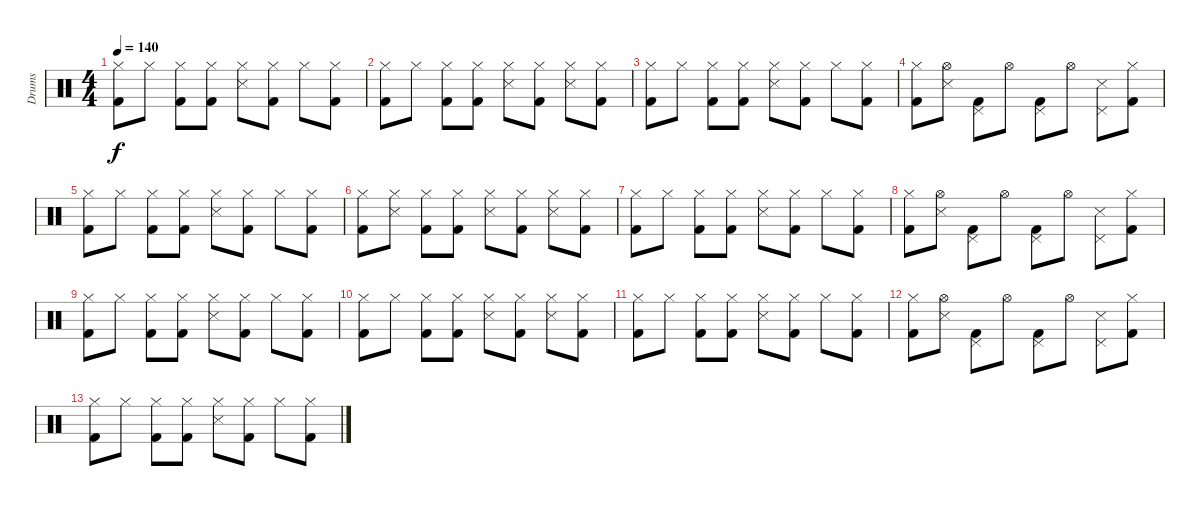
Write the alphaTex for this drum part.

\track ("Drums" "Drums") {instrument percussion}
\staff {score}
\articulation defaults
\ts (4 4)
\tempo 140
\clef neutral
\ks c
("Kick (hit) 2" "Hi-Hat (closed)").8{dy f} "Hi-Hat (closed)".8 ("Kick (hit) 2" "Hi-Hat (closed)").8 ("Kick (hit) 2" "Hi-Hat (closed)").8 ("Snare (side stick) 3" "Hi-Hat (closed)").8 ("Kick (hit) 2" "Hi-Hat (closed)").8 "Hi-Hat (closed)".8 ("Kick (hit) 2" "Hi-Hat (closed)").8 |
("Kick (hit) 2" "Hi-Hat (closed)").8 "Hi-Hat (closed)".8 ("Kick (hit) 2" "Hi-Hat (closed)").8 ("Kick (hit) 2" "Hi-Hat (closed)").8 ("Snare (side stick) 3" "Hi-Hat (closed)").8 ("Kick (hit) 2" "Hi-Hat (closed)").8 ("Snare (side stick) 3" "Hi-Hat (closed)").8 ("Kick (hit) 2" "Hi-Hat (closed)").8 |
("Kick (hit) 2" "Hi-Hat (closed)").8 "Hi-Hat (closed)".8 ("Kick (hit) 2" "Hi-Hat (closed)").8 ("Kick (hit) 2" "Hi-Hat (closed)").8 ("Snare (side stick) 3" "Hi-Hat (closed)").8 ("Kick (hit) 2" "Hi-Hat (closed)").8 "Hi-Hat (closed)".8 ("Kick (hit) 2" "Hi-Hat (closed)").8 |
("Kick (hit) 2" "Hi-Hat (closed)").8 ("Snare (side stick) 3" "Hi-Hat (open)").8 ("Kick (hit) 2" "Pedal Hi-Hat (hit)").8 "Hi-Hat (open)".8 ("Kick (hit) 2" "Pedal Hi-Hat (hit)").8 "Hi-Hat (open)".8 ("Snare (side stick) 3" "Pedal Hi-Hat (hit)").8 ("Kick (hit) 2" "Hi-Hat (closed)").8 |
("Kick (hit) 2" "Hi-Hat (closed)").8 "Hi-Hat (closed)".8 ("Kick (hit) 2" "Hi-Hat (closed)").8 ("Kick (hit) 2" "Hi-Hat (closed)").8 ("Snare (side stick) 3" "Hi-Hat (closed)").8 ("Kick (hit) 2" "Hi-Hat (closed)").8 "Hi-Hat (closed)".8 ("Kick (hit) 2" "Hi-Hat (closed)").8 |
("Kick (hit) 2" "Hi-Hat (closed)").8 ("Snare (side stick) 3" "Hi-Hat (closed)").8 ("Kick (hit) 2" "Hi-Hat (closed)").8 ("Kick (hit) 2" "Hi-Hat (closed)").8 ("Snare (side stick) 3" "Hi-Hat (closed)").8 ("Kick (hit) 2" "Hi-Hat (closed)").8 ("Snare (side stick) 3" "Hi-Hat (closed)").8 ("Kick (hit) 2" "Hi-Hat (closed)").8 |
("Kick (hit) 2" "Hi-Hat (closed)").8 "Hi-Hat (closed)".8 ("Kick (hit) 2" "Hi-Hat (closed)").8 ("Kick (hit) 2" "Hi-Hat (closed)").8 ("Snare (side stick) 3" "Hi-Hat (closed)").8 ("Kick (hit) 2" "Hi-Hat (closed)").8 "Hi-Hat (closed)".8 ("Kick (hit) 2" "Hi-Hat (closed)").8 |
("Kick (hit) 2" "Hi-Hat (closed)").8 ("Snare (side stick) 3" "Hi-Hat (open)").8 ("Kick (hit) 2" "Pedal Hi-Hat (hit)").8 "Hi-Hat (open)".8 ("Kick (hit) 2" "Pedal Hi-Hat (hit)").8 "Hi-Hat (open)".8 ("Snare (side stick) 3" "Pedal Hi-Hat (hit)").8 ("Kick (hit) 2" "Hi-Hat (closed)").8 |
("Kick (hit) 2" "Hi-Hat (closed)").8 "Hi-Hat (closed)".8 ("Kick (hit) 2" "Hi-Hat (closed)").8 ("Kick (hit) 2" "Hi-Hat (closed)").8 ("Snare (side stick) 3" "Hi-Hat (closed)").8 ("Kick (hit) 2" "Hi-Hat (closed)").8 "Hi-Hat (closed)".8 ("Kick (hit) 2" "Hi-Hat (closed)").8 |
("Kick (hit) 2" "Hi-Hat (closed)").8 "Hi-Hat (closed)".8 ("Kick (hit) 2" "Hi-Hat (closed)").8 ("Kick (hit) 2" "Hi-Hat (closed)").8 ("Snare (side stick) 3" "Hi-Hat (closed)").8 ("Kick (hit) 2" "Hi-Hat (closed)").8 ("Snare (side stick) 3" "Hi-Hat (closed)").8 ("Kick (hit) 2" "Hi-Hat (closed)").8 |
("Kick (hit) 2" "Hi-Hat (closed)").8 "Hi-Hat (closed)".8 ("Kick (hit) 2" "Hi-Hat (closed)").8 ("Kick (hit) 2" "Hi-Hat (closed)").8 ("Snare (side stick) 3" "Hi-Hat (closed)").8 ("Kick (hit) 2" "Hi-Hat (closed)").8 "Hi-Hat (closed)".8 ("Kick (hit) 2" "Hi-Hat (closed)").8 |
("Kick (hit) 2" "Hi-Hat (closed)").8 ("Snare (side stick) 3" "Hi-Hat (open)").8 ("Kick (hit) 2" "Pedal Hi-Hat (hit)").8 "Hi-Hat (open)".8 ("Kick (hit) 2" "Pedal Hi-Hat (hit)").8 "Hi-Hat (open)".8 ("Snare (side stick) 3" "Pedal Hi-Hat (hit)").8 ("Kick (hit) 2" "Hi-Hat (closed)").8 |
("Kick (hit) 2" "Hi-Hat (closed)").8 "Hi-Hat (closed)".8 ("Kick (hit) 2" "Hi-Hat (closed)").8 ("Kick (hit) 2" "Hi-Hat (closed)").8 ("Snare (side stick) 3" "Hi-Hat (closed)").8 ("Kick (hit) 2" "Hi-Hat (closed)").8 "Hi-Hat (closed)".8 ("Kick (hit) 2" "Hi-Hat (closed)").8
